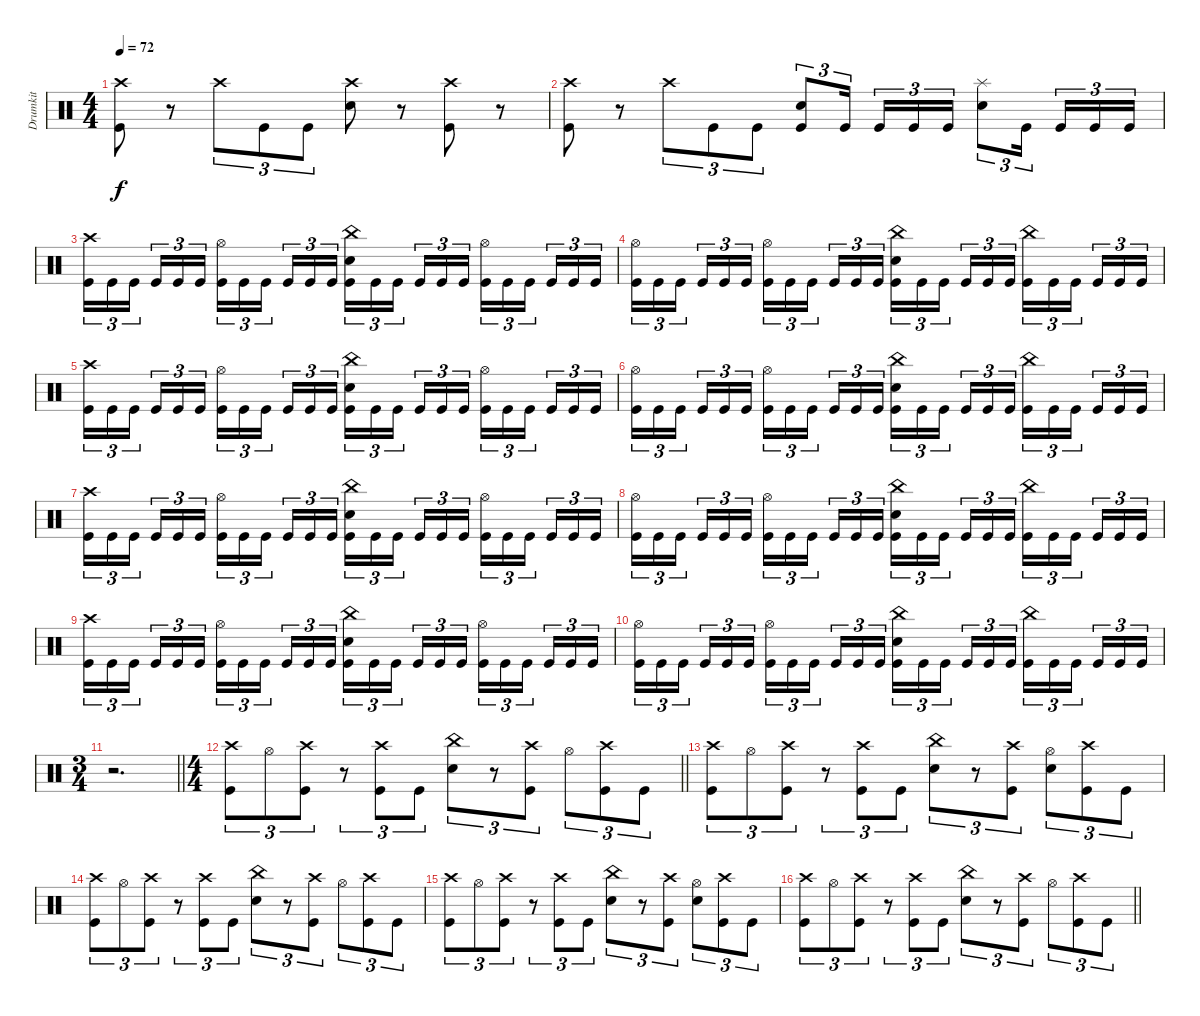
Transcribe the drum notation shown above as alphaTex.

\track ("Drumkit" "Drumkit") {instrument percussion}
\staff {score}
\articulation defaults
\ts (4 4)
\tempo 72
\clef neutral
\ks c
("Kick (hit)" "Crash high (hit)").8{dy f} r.8 "Crash high (hit)".8{tu (3 2)} "Kick (hit)".8{tu (3 2)} "Kick (hit)".8{tu (3 2)} ("Snare (hit) 2" "Crash high (hit)").8 r.8 ("Kick (hit)" "Crash high (hit)").8 r.8 |
("Kick (hit)" "Crash high (hit)").8 r.8 "Crash high (hit)".8{tu (3 2)} "Kick (hit)".8{tu (3 2)} "Kick (hit)".8{tu (3 2)} ("Kick (hit)" "Snare (hit) 2").8{tu (3 2)} "Kick (hit)".16{tu (3 2) beam splitsecondary} "Kick (hit)".16{tu (3 2)} "Kick (hit)".16{tu (3 2)} "Kick (hit)".16{tu (3 2)} ("Snare (hit) 2" "Splash (hit)").8{tu (3 2)} "Kick (hit)".16{tu (3 2) beam splitsecondary} "Kick (hit)".16{tu (3 2)} "Kick (hit)".16{tu (3 2)} "Kick (hit)".16{tu (3 2)} |
("Kick (hit)" "Crash high (hit)").16{tu (3 2)} "Kick (hit)".16{tu (3 2)} "Kick (hit)".16{tu (3 2) beam splitsecondary} "Kick (hit)".16{tu (3 2)} "Kick (hit)".16{tu (3 2)} "Kick (hit)".16{tu (3 2)} ("Kick (hit)" "Hi-Hat (open)").16{tu (3 2)} "Kick (hit)".16{tu (3 2)} "Kick (hit)".16{tu (3 2) beam splitsecondary} "Kick (hit)".16{tu (3 2)} "Kick (hit)".16{tu (3 2)} "Kick (hit)".16{tu (3 2)} ("Kick (hit)" "Snare (hit) 2" "China (hit)").16{tu (3 2)} "Kick (hit)".16{tu (3 2)} "Kick (hit)".16{tu (3 2) beam splitsecondary} "Kick (hit)".16{tu (3 2)} "Kick (hit)".16{tu (3 2)} "Kick (hit)".16{tu (3 2)} ("Kick (hit)" "Hi-Hat (open)").16{tu (3 2)} "Kick (hit)".16{tu (3 2)} "Kick (hit)".16{tu (3 2) beam splitsecondary} "Kick (hit)".16{tu (3 2)} "Kick (hit)".16{tu (3 2)} "Kick (hit)".16{tu (3 2)} |
("Kick (hit)" "Hi-Hat (open)").16{tu (3 2)} "Kick (hit)".16{tu (3 2)} "Kick (hit)".16{tu (3 2) beam splitsecondary} "Kick (hit)".16{tu (3 2)} "Kick (hit)".16{tu (3 2)} "Kick (hit)".16{tu (3 2)} ("Kick (hit)" "Hi-Hat (open)").16{tu (3 2)} "Kick (hit)".16{tu (3 2)} "Kick (hit)".16{tu (3 2) beam splitsecondary} "Kick (hit)".16{tu (3 2)} "Kick (hit)".16{tu (3 2)} "Kick (hit)".16{tu (3 2)} ("Kick (hit)" "Snare (hit) 2" "China (hit)").16{tu (3 2)} "Kick (hit)".16{tu (3 2)} "Kick (hit)".16{tu (3 2) beam splitsecondary} "Kick (hit)".16{tu (3 2)} "Kick (hit)".16{tu (3 2)} "Kick (hit)".16{tu (3 2)} ("Kick (hit)" "China (hit)").16{tu (3 2)} "Kick (hit)".16{tu (3 2)} "Kick (hit)".16{tu (3 2) beam splitsecondary} "Kick (hit)".16{tu (3 2)} "Kick (hit)".16{tu (3 2)} "Kick (hit)".16{tu (3 2)} |
("Kick (hit)" "Crash high (hit)").16{tu (3 2)} "Kick (hit)".16{tu (3 2)} "Kick (hit)".16{tu (3 2) beam splitsecondary} "Kick (hit)".16{tu (3 2)} "Kick (hit)".16{tu (3 2)} "Kick (hit)".16{tu (3 2)} ("Kick (hit)" "Hi-Hat (open)").16{tu (3 2)} "Kick (hit)".16{tu (3 2)} "Kick (hit)".16{tu (3 2) beam splitsecondary} "Kick (hit)".16{tu (3 2)} "Kick (hit)".16{tu (3 2)} "Kick (hit)".16{tu (3 2)} ("Kick (hit)" "Snare (hit) 2" "China (hit)").16{tu (3 2)} "Kick (hit)".16{tu (3 2)} "Kick (hit)".16{tu (3 2) beam splitsecondary} "Kick (hit)".16{tu (3 2)} "Kick (hit)".16{tu (3 2)} "Kick (hit)".16{tu (3 2)} ("Kick (hit)" "Hi-Hat (open)").16{tu (3 2)} "Kick (hit)".16{tu (3 2)} "Kick (hit)".16{tu (3 2) beam splitsecondary} "Kick (hit)".16{tu (3 2)} "Kick (hit)".16{tu (3 2)} "Kick (hit)".16{tu (3 2)} |
("Kick (hit)" "Hi-Hat (open)").16{tu (3 2)} "Kick (hit)".16{tu (3 2)} "Kick (hit)".16{tu (3 2) beam splitsecondary} "Kick (hit)".16{tu (3 2)} "Kick (hit)".16{tu (3 2)} "Kick (hit)".16{tu (3 2)} ("Kick (hit)" "Hi-Hat (open)").16{tu (3 2)} "Kick (hit)".16{tu (3 2)} "Kick (hit)".16{tu (3 2) beam splitsecondary} "Kick (hit)".16{tu (3 2)} "Kick (hit)".16{tu (3 2)} "Kick (hit)".16{tu (3 2)} ("Kick (hit)" "Snare (hit) 2" "China (hit)").16{tu (3 2)} "Kick (hit)".16{tu (3 2)} "Kick (hit)".16{tu (3 2) beam splitsecondary} "Kick (hit)".16{tu (3 2)} "Kick (hit)".16{tu (3 2)} "Kick (hit)".16{tu (3 2)} ("Kick (hit)" "China (hit)").16{tu (3 2)} "Kick (hit)".16{tu (3 2)} "Kick (hit)".16{tu (3 2) beam splitsecondary} "Kick (hit)".16{tu (3 2)} "Kick (hit)".16{tu (3 2)} "Kick (hit)".16{tu (3 2)} |
("Kick (hit)" "Crash high (hit)").16{tu (3 2)} "Kick (hit)".16{tu (3 2)} "Kick (hit)".16{tu (3 2) beam splitsecondary} "Kick (hit)".16{tu (3 2)} "Kick (hit)".16{tu (3 2)} "Kick (hit)".16{tu (3 2)} ("Kick (hit)" "Hi-Hat (open)").16{tu (3 2)} "Kick (hit)".16{tu (3 2)} "Kick (hit)".16{tu (3 2) beam splitsecondary} "Kick (hit)".16{tu (3 2)} "Kick (hit)".16{tu (3 2)} "Kick (hit)".16{tu (3 2)} ("Kick (hit)" "Snare (hit) 2" "China (hit)").16{tu (3 2)} "Kick (hit)".16{tu (3 2)} "Kick (hit)".16{tu (3 2) beam splitsecondary} "Kick (hit)".16{tu (3 2)} "Kick (hit)".16{tu (3 2)} "Kick (hit)".16{tu (3 2)} ("Kick (hit)" "Hi-Hat (open)").16{tu (3 2)} "Kick (hit)".16{tu (3 2)} "Kick (hit)".16{tu (3 2) beam splitsecondary} "Kick (hit)".16{tu (3 2)} "Kick (hit)".16{tu (3 2)} "Kick (hit)".16{tu (3 2)} |
("Kick (hit)" "Hi-Hat (open)").16{tu (3 2)} "Kick (hit)".16{tu (3 2)} "Kick (hit)".16{tu (3 2) beam splitsecondary} "Kick (hit)".16{tu (3 2)} "Kick (hit)".16{tu (3 2)} "Kick (hit)".16{tu (3 2)} ("Kick (hit)" "Hi-Hat (open)").16{tu (3 2)} "Kick (hit)".16{tu (3 2)} "Kick (hit)".16{tu (3 2) beam splitsecondary} "Kick (hit)".16{tu (3 2)} "Kick (hit)".16{tu (3 2)} "Kick (hit)".16{tu (3 2)} ("Kick (hit)" "Snare (hit) 2" "China (hit)").16{tu (3 2)} "Kick (hit)".16{tu (3 2)} "Kick (hit)".16{tu (3 2) beam splitsecondary} "Kick (hit)".16{tu (3 2)} "Kick (hit)".16{tu (3 2)} "Kick (hit)".16{tu (3 2)} ("Kick (hit)" "China (hit)").16{tu (3 2)} "Kick (hit)".16{tu (3 2)} "Kick (hit)".16{tu (3 2) beam splitsecondary} "Kick (hit)".16{tu (3 2)} "Kick (hit)".16{tu (3 2)} "Kick (hit)".16{tu (3 2)} |
("Kick (hit)" "Crash high (hit)").16{tu (3 2)} "Kick (hit)".16{tu (3 2)} "Kick (hit)".16{tu (3 2) beam splitsecondary} "Kick (hit)".16{tu (3 2)} "Kick (hit)".16{tu (3 2)} "Kick (hit)".16{tu (3 2)} ("Kick (hit)" "Hi-Hat (open)").16{tu (3 2)} "Kick (hit)".16{tu (3 2)} "Kick (hit)".16{tu (3 2) beam splitsecondary} "Kick (hit)".16{tu (3 2)} "Kick (hit)".16{tu (3 2)} "Kick (hit)".16{tu (3 2)} ("Kick (hit)" "Snare (hit) 2" "China (hit)").16{tu (3 2)} "Kick (hit)".16{tu (3 2)} "Kick (hit)".16{tu (3 2) beam splitsecondary} "Kick (hit)".16{tu (3 2)} "Kick (hit)".16{tu (3 2)} "Kick (hit)".16{tu (3 2)} ("Kick (hit)" "Hi-Hat (open)").16{tu (3 2)} "Kick (hit)".16{tu (3 2)} "Kick (hit)".16{tu (3 2) beam splitsecondary} "Kick (hit)".16{tu (3 2)} "Kick (hit)".16{tu (3 2)} "Kick (hit)".16{tu (3 2)} |
("Kick (hit)" "Hi-Hat (open)").16{tu (3 2)} "Kick (hit)".16{tu (3 2)} "Kick (hit)".16{tu (3 2) beam splitsecondary} "Kick (hit)".16{tu (3 2)} "Kick (hit)".16{tu (3 2)} "Kick (hit)".16{tu (3 2)} ("Kick (hit)" "Hi-Hat (open)").16{tu (3 2)} "Kick (hit)".16{tu (3 2)} "Kick (hit)".16{tu (3 2) beam splitsecondary} "Kick (hit)".16{tu (3 2)} "Kick (hit)".16{tu (3 2)} "Kick (hit)".16{tu (3 2)} ("Kick (hit)" "Snare (hit) 2" "China (hit)").16{tu (3 2)} "Kick (hit)".16{tu (3 2)} "Kick (hit)".16{tu (3 2) beam splitsecondary} "Kick (hit)".16{tu (3 2)} "Kick (hit)".16{tu (3 2)} "Kick (hit)".16{tu (3 2)} ("Kick (hit)" "China (hit)").16{tu (3 2)} "Kick (hit)".16{tu (3 2)} "Kick (hit)".16{tu (3 2) beam splitsecondary} "Kick (hit)".16{tu (3 2)} "Kick (hit)".16{tu (3 2)} "Kick (hit)".16{tu (3 2)} |
\ts (3 4)
\barLineRight lightlight
r.2{d} |
\ts (4 4)
\barLineRight lightlight
("Kick (hit)" "Crash high (hit)").8{tu (3 2)} "Hi-Hat (open)".8{tu (3 2)} ("Kick (hit)" "Crash high (hit)").8{tu (3 2)} r.8{tu (3 2)} ("Kick (hit)" "Crash high (hit)").8{tu (3 2)} "Kick (hit)".8{tu (3 2)} ("Snare (hit) 2" "China (hit)").8{tu (3 2)} r.8{tu (3 2)} ("Kick (hit)" "Crash high (hit)").8{tu (3 2)} "Hi-Hat (open)".8{tu (3 2)} ("Kick (hit)" "Crash high (hit)").8{tu (3 2)} "Kick (hit)".8{tu (3 2)} |
("Kick (hit)" "Crash high (hit)").8{tu (3 2)} "Hi-Hat (open)".8{tu (3 2)} ("Kick (hit)" "Crash high (hit)").8{tu (3 2)} r.8{tu (3 2)} ("Kick (hit)" "Crash high (hit)").8{tu (3 2)} "Kick (hit)".8{tu (3 2)} ("Snare (hit) 2" "China (hit)").8{tu (3 2)} r.8{tu (3 2)} ("Kick (hit)" "Crash high (hit)").8{tu (3 2)} ("Hi-Hat (open)" "Snare (hit) 2").8{tu (3 2)} ("Kick (hit)" "Crash high (hit)").8{tu (3 2)} "Kick (hit)".8{tu (3 2)} |
("Kick (hit)" "Crash high (hit)").8{tu (3 2)} "Hi-Hat (open)".8{tu (3 2)} ("Kick (hit)" "Crash high (hit)").8{tu (3 2)} r.8{tu (3 2)} ("Kick (hit)" "Crash high (hit)").8{tu (3 2)} "Kick (hit)".8{tu (3 2)} ("Snare (hit) 2" "China (hit)").8{tu (3 2)} r.8{tu (3 2)} ("Kick (hit)" "Crash high (hit)").8{tu (3 2)} "Hi-Hat (open)".8{tu (3 2)} ("Kick (hit)" "Crash high (hit)").8{tu (3 2)} "Kick (hit)".8{tu (3 2)} |
("Kick (hit)" "Crash high (hit)").8{tu (3 2)} "Hi-Hat (open)".8{tu (3 2)} ("Kick (hit)" "Crash high (hit)").8{tu (3 2)} r.8{tu (3 2)} ("Kick (hit)" "Crash high (hit)").8{tu (3 2)} "Kick (hit)".8{tu (3 2)} ("Snare (hit) 2" "China (hit)").8{tu (3 2)} r.8{tu (3 2)} ("Kick (hit)" "Crash high (hit)").8{tu (3 2)} ("Hi-Hat (open)" "Snare (hit) 2").8{tu (3 2)} ("Kick (hit)" "Crash high (hit)").8{tu (3 2)} "Kick (hit)".8{tu (3 2)} |
\barLineRight lightlight
("Kick (hit)" "Crash high (hit)").8{tu (3 2)} "Hi-Hat (open)".8{tu (3 2)} ("Kick (hit)" "Crash high (hit)").8{tu (3 2)} r.8{tu (3 2)} ("Kick (hit)" "Crash high (hit)").8{tu (3 2)} "Kick (hit)".8{tu (3 2)} ("Snare (hit) 2" "China (hit)").8{tu (3 2)} r.8{tu (3 2)} ("Kick (hit)" "Crash high (hit)").8{tu (3 2)} "Hi-Hat (open)".8{tu (3 2)} ("Kick (hit)" "Crash high (hit)").8{tu (3 2)} "Kick (hit)".8{tu (3 2)}
